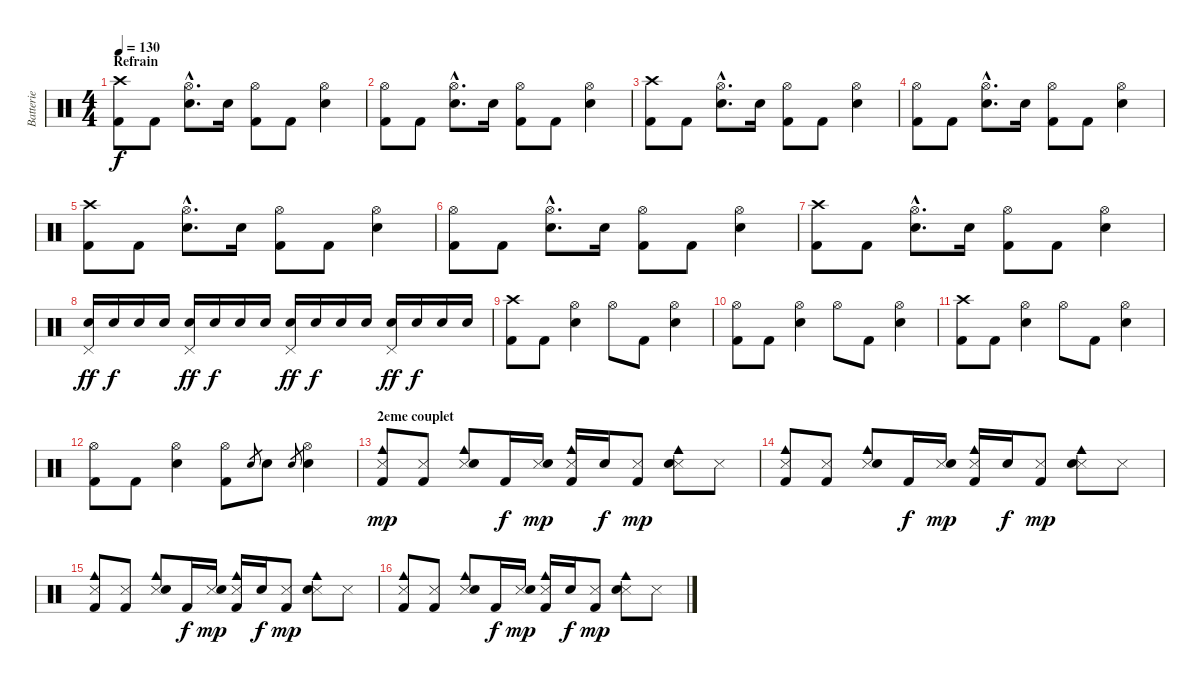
\track ("Batterie" "Batterie") {instrument percussion}
\staff {score}
\articulation defaults
\ts (4 4)
\section ("" "Refrain")
\tempo 130
\clef neutral
\ks c
("Crash high (hit)" "Kick (hit) 2").8{dy f} "Kick (hit) 2".8 ("Hi-Hat (open)"{hac} "Snare (hit) 2"{hac}).8{d} "Snare (hit) 2".16 ("Hi-Hat (open)" "Kick (hit) 2").8 "Kick (hit) 2".8 ("Hi-Hat (open)" "Snare (hit) 2").4 |
("Hi-Hat (open)" "Kick (hit) 2").8 "Kick (hit) 2".8 ("Hi-Hat (open)"{hac} "Snare (hit) 2"{hac}).8{d} "Snare (hit) 2".16 ("Hi-Hat (open)" "Kick (hit) 2").8 "Kick (hit) 2".8 ("Hi-Hat (open)" "Snare (hit) 2").4 |
("Crash high (hit)" "Kick (hit) 2").8 "Kick (hit) 2".8 ("Hi-Hat (open)"{hac} "Snare (hit) 2"{hac}).8{d} "Snare (hit) 2".16 ("Hi-Hat (open)" "Kick (hit) 2").8 "Kick (hit) 2".8 ("Hi-Hat (open)" "Snare (hit) 2").4 |
("Hi-Hat (open)" "Kick (hit) 2").8 "Kick (hit) 2".8 ("Hi-Hat (open)"{hac} "Snare (hit) 2"{hac}).8{d} "Snare (hit) 2".16 ("Hi-Hat (open)" "Kick (hit) 2").8 "Kick (hit) 2".8 ("Hi-Hat (open)" "Snare (hit) 2").4 |
("Crash high (hit)" "Kick (hit) 2").8 "Kick (hit) 2".8 ("Hi-Hat (open)"{hac} "Snare (hit) 2"{hac}).8{d} "Snare (hit) 2".16 ("Hi-Hat (open)" "Kick (hit) 2").8 "Kick (hit) 2".8 ("Hi-Hat (open)" "Snare (hit) 2").4 |
("Hi-Hat (open)" "Kick (hit) 2").8 "Kick (hit) 2".8 ("Hi-Hat (open)"{hac} "Snare (hit) 2"{hac}).8{d} "Snare (hit) 2".16 ("Hi-Hat (open)" "Kick (hit) 2").8 "Kick (hit) 2".8 ("Hi-Hat (open)" "Snare (hit) 2").4 |
("Crash high (hit)" "Kick (hit) 2").8 "Kick (hit) 2".8 ("Hi-Hat (open)"{hac} "Snare (hit) 2"{hac}).8{d} "Snare (hit) 2".16 ("Hi-Hat (open)" "Kick (hit) 2").8 "Kick (hit) 2".8 ("Hi-Hat (open)" "Snare (hit) 2").4 |
("Pedal Hi-Hat (hit)" "Snare (hit) 2").16{dy ff} "Snare (hit) 2".16{dy f} "Snare (hit) 2".16 "Snare (hit) 2".16 ("Pedal Hi-Hat (hit)" "Snare (hit) 2").16{dy ff} "Snare (hit) 2".16{dy f} "Snare (hit) 2".16 "Snare (hit) 2".16 ("Pedal Hi-Hat (hit)" "Snare (hit) 2").16{dy ff} "Snare (hit) 2".16{dy f} "Snare (hit) 2".16 "Snare (hit) 2".16 ("Pedal Hi-Hat (hit)" "Snare (hit) 2").16{dy ff} "Snare (hit) 2".16{dy f} "Snare (hit) 2".16 "Snare (hit) 2".16 |
("Crash high (hit)" "Kick (hit) 2").8 "Kick (hit) 2".8 ("Hi-Hat (open)" "Snare (hit) 2").4 "Hi-Hat (open)".8 "Kick (hit) 2".8 ("Hi-Hat (open)" "Snare (hit) 2").4 |
("Hi-Hat (open)" "Kick (hit) 2").8 "Kick (hit) 2".8 ("Hi-Hat (open)" "Snare (hit) 2").4 "Hi-Hat (open)".8 "Kick (hit) 2".8 ("Hi-Hat (open)" "Snare (hit) 2").4 |
("Crash high (hit)" "Kick (hit) 2").8 "Kick (hit) 2".8 ("Hi-Hat (open)" "Snare (hit) 2").4 "Hi-Hat (open)".8 "Kick (hit) 2".8 ("Hi-Hat (open)" "Snare (hit) 2").4 |
("Hi-Hat (open)" "Kick (hit) 2").8 "Kick (hit) 2".8 ("Hi-Hat (open)" "Snare (hit) 2").4 ("Hi-Hat (open)" "Kick (hit) 2").8 "Snare (hit) 2".8{gr} "Snare (hit) 2".8 "Snare (hit) 2".8{gr} ("Hi-Hat (open)" "Snare (hit) 2").4 |
\section ("" "2eme couplet")
("Cowbell medium (hit)" "Snare (side stick) 3" "Kick (hit) 2").8{dy mp} ("Snare (side stick) 3" "Kick (hit) 2").8 ("Cowbell medium (hit)" "Snare (side stick) 3" "Snare (hit) 2").8 "Kick (hit) 2".16{dy f} ("Snare (side stick) 3" "Snare (hit) 2").16{dy mp} ("Cowbell medium (hit)" "Snare (side stick) 3" "Kick (hit) 2").16 "Snare (hit) 2".16{dy f} ("Snare (side stick) 3" "Kick (hit) 2").8{dy mp} ("Cowbell medium (hit)" "Snare (side stick) 3" "Snare (hit) 2").8 "Snare (side stick) 3".8 |
("Cowbell medium (hit)" "Snare (side stick) 3" "Kick (hit) 2").8 ("Snare (side stick) 3" "Kick (hit) 2").8 ("Cowbell medium (hit)" "Snare (side stick) 3" "Snare (hit) 2").8 "Kick (hit) 2".16{dy f} ("Snare (side stick) 3" "Snare (hit) 2").16{dy mp} ("Cowbell medium (hit)" "Snare (side stick) 3" "Kick (hit) 2").16 "Snare (hit) 2".16{dy f} ("Snare (side stick) 3" "Kick (hit) 2").8{dy mp} ("Cowbell medium (hit)" "Snare (side stick) 3" "Snare (hit) 2").8 "Snare (side stick) 3".8 |
("Cowbell medium (hit)" "Snare (side stick) 3" "Kick (hit) 2").8 ("Snare (side stick) 3" "Kick (hit) 2").8 ("Cowbell medium (hit)" "Snare (side stick) 3" "Snare (hit) 2").8 "Kick (hit) 2".16{dy f} ("Snare (side stick) 3" "Snare (hit) 2").16{dy mp} ("Cowbell medium (hit)" "Snare (side stick) 3" "Kick (hit) 2").16 "Snare (hit) 2".16{dy f} ("Snare (side stick) 3" "Kick (hit) 2").8{dy mp} ("Cowbell medium (hit)" "Snare (side stick) 3" "Snare (hit) 2").8 "Snare (side stick) 3".8 |
("Cowbell medium (hit)" "Snare (side stick) 3" "Kick (hit) 2").8 ("Snare (side stick) 3" "Kick (hit) 2").8 ("Cowbell medium (hit)" "Snare (side stick) 3" "Snare (hit) 2").8 "Kick (hit) 2".16{dy f} ("Snare (side stick) 3" "Snare (hit) 2").16{dy mp} ("Cowbell medium (hit)" "Snare (side stick) 3" "Kick (hit) 2").16 "Snare (hit) 2".16{dy f} ("Snare (side stick) 3" "Kick (hit) 2").8{dy mp} ("Cowbell medium (hit)" "Snare (side stick) 3" "Snare (hit) 2").8 "Snare (side stick) 3".8
